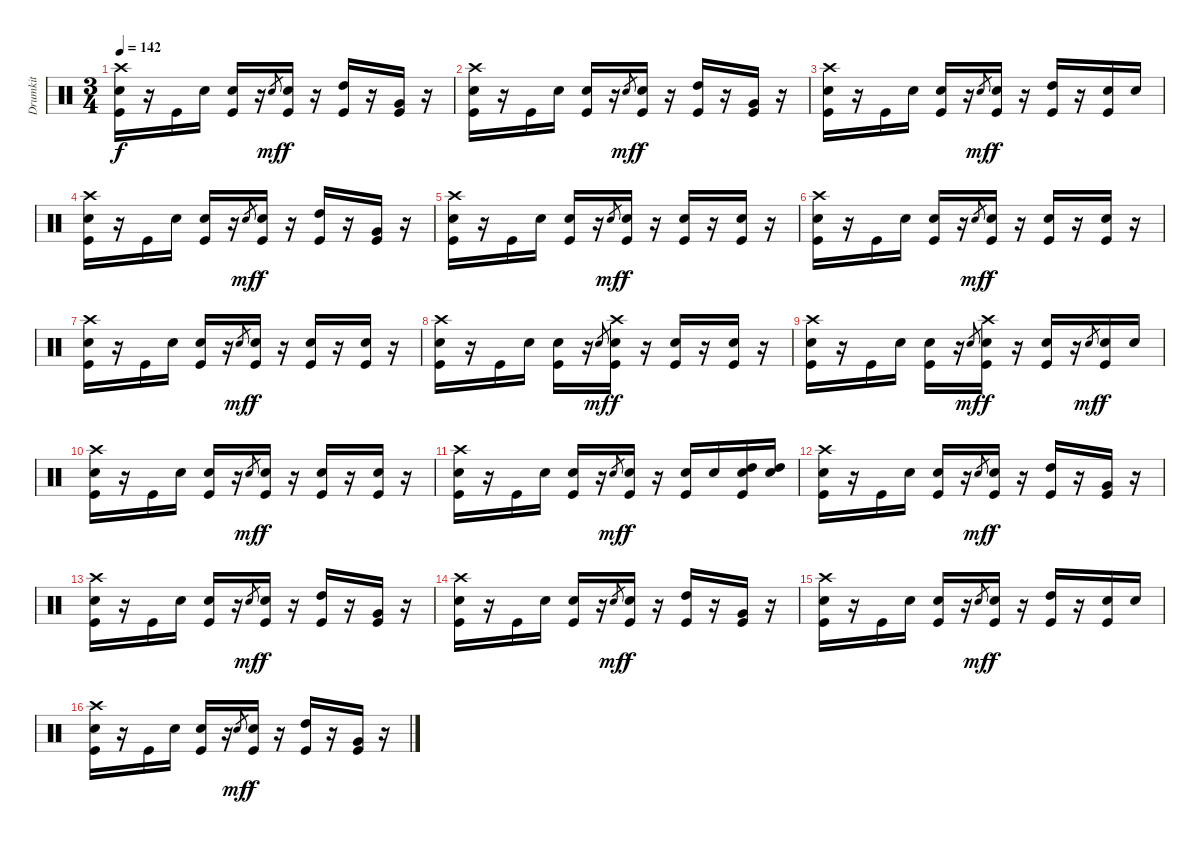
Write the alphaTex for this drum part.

\track ("Drumkit" "Drumkit") {instrument percussion}
\staff {score}
\articulation defaults
\ts (3 4)
\tempo 142
\clef neutral
\ks c
("Crash high (hit)" "Snare (hit) 2" "Kick (hit)").16{dy f} r.16 "Kick (hit)".16 "Snare (hit) 2".16 ("Snare (hit) 2" "Kick (hit)").16 r.16 "Snare (hit)".8{gr dy mf} ("Snare (hit) 2" "Kick (hit)").16{dy f} r.16 ("High Tom (hit)" "Kick (hit)").16 r.16 ("Very Low Tom (hit)" "Kick (hit)").16 r.16 |
("Crash high (hit)" "Snare (hit) 2" "Kick (hit)").16 r.16 "Kick (hit)".16 "Snare (hit) 2".16 ("Snare (hit) 2" "Kick (hit)").16 r.16 "Snare (hit)".8{gr dy mf} ("Snare (hit) 2" "Kick (hit)").16{dy f} r.16 ("High Tom (hit)" "Kick (hit)").16 r.16 ("Very Low Tom (hit)" "Kick (hit)").16 r.16 |
("Crash high (hit)" "Snare (hit) 2" "Kick (hit)").16 r.16 "Kick (hit)".16 "Snare (hit) 2".16 ("Snare (hit) 2" "Kick (hit)").16 r.16 "Snare (hit)".8{gr dy mf} ("Snare (hit) 2" "Kick (hit)").16{dy f} r.16 ("High Tom (hit)" "Kick (hit)").16 r.16 ("Snare (hit) 2" "Kick (hit)").16 "Snare (hit) 2".16 |
("Crash high (hit)" "Snare (hit) 2" "Kick (hit)").16 r.16 "Kick (hit)".16 "Snare (hit) 2".16 ("Snare (hit) 2" "Kick (hit)").16 r.16 "Snare (hit)".8{gr dy mf} ("Snare (hit) 2" "Kick (hit)").16{dy f} r.16 ("High Tom (hit)" "Kick (hit)").16 r.16 ("Very Low Tom (hit)" "Kick (hit)").16 r.16 |
("Crash high (hit)" "Snare (hit) 2" "Kick (hit)").16 r.16 "Kick (hit)".16 "Snare (hit) 2".16 ("Snare (hit) 2" "Kick (hit)").16 r.16 "Snare (hit)".8{gr dy mf} ("Snare (hit) 2" "Kick (hit)").16{dy f} r.16 ("Snare (hit) 2" "Kick (hit)").16 r.16 ("Snare (hit) 2" "Kick (hit)").16 r.16 |
("Crash high (hit)" "Snare (hit) 2" "Kick (hit)").16 r.16 "Kick (hit)".16 "Snare (hit) 2".16 ("Snare (hit) 2" "Kick (hit)").16 r.16 "Snare (hit)".8{gr dy mf} ("Snare (hit) 2" "Kick (hit)").16{dy f} r.16 ("Snare (hit) 2" "Kick (hit)").16 r.16 ("Snare (hit) 2" "Kick (hit)").16 r.16 |
("Crash high (hit)" "Snare (hit) 2" "Kick (hit)").16 r.16 "Kick (hit)".16 "Snare (hit) 2".16 ("Snare (hit) 2" "Kick (hit)").16 r.16 "Snare (hit)".8{gr dy mf} ("Snare (hit) 2" "Kick (hit)").16{dy f} r.16 ("Snare (hit) 2" "Kick (hit)").16 r.16 ("Snare (hit) 2" "Kick (hit)").16 r.16 |
("Crash high (hit)" "Snare (hit) 2" "Kick (hit)").16 r.16 "Kick (hit)".16 "Snare (hit) 2".16 ("Snare (hit) 2" "Kick (hit)").16 r.16 "Snare (hit)".8{gr dy mf} ("Crash high (hit)" "Snare (hit) 2" "Kick (hit)").16{dy f} r.16 ("Snare (hit) 2" "Kick (hit)").16 r.16 ("Snare (hit) 2" "Kick (hit)").16 r.16 |
("Crash high (hit)" "Snare (hit) 2" "Kick (hit)").16 r.16 "Kick (hit)".16 "Snare (hit) 2".16 ("Snare (hit) 2" "Kick (hit)").16 r.16 "Snare (hit)".8{gr dy mf} ("Crash high (hit)" "Snare (hit) 2" "Kick (hit)").16{dy f} r.16 ("Snare (hit) 2" "Kick (hit)").16 r.16 "Snare (hit)".8{gr dy mf} ("Snare (hit) 2" "Kick (hit)").16{dy f} "Snare (hit) 2".16 |
("Crash high (hit)" "Snare (hit) 2" "Kick (hit)").16 r.16 "Kick (hit)".16 "Snare (hit) 2".16 ("Snare (hit) 2" "Kick (hit)").16 r.16 "Snare (hit)".8{gr dy mf} ("Snare (hit) 2" "Kick (hit)").16{dy f} r.16 ("Snare (hit) 2" "Kick (hit)").16 r.16 ("Snare (hit) 2" "Kick (hit)").16 r.16 |
("Crash high (hit)" "Snare (hit) 2" "Kick (hit)").16 r.16 "Kick (hit)".16 "Snare (hit) 2".16 ("Snare (hit) 2" "Kick (hit)").16 r.16 "Snare (hit)".8{gr dy mf} ("Snare (hit) 2" "Kick (hit)").16{dy f} r.16 ("Snare (hit) 2" "Kick (hit)").16 "Snare (hit) 2".16 ("Snare (hit) 2" "High Tom (hit)" "Kick (hit)").16 ("Snare (hit) 2" "High Tom (hit)").16 |
("Crash high (hit)" "Snare (hit) 2" "Kick (hit)").16 r.16 "Kick (hit)".16 "Snare (hit) 2".16 ("Snare (hit) 2" "Kick (hit)").16 r.16 "Snare (hit)".8{gr dy mf} ("Snare (hit) 2" "Kick (hit)").16{dy f} r.16 ("High Tom (hit)" "Kick (hit)").16 r.16 ("Very Low Tom (hit)" "Kick (hit)").16 r.16 |
("Crash high (hit)" "Snare (hit) 2" "Kick (hit)").16 r.16 "Kick (hit)".16 "Snare (hit) 2".16 ("Snare (hit) 2" "Kick (hit)").16 r.16 "Snare (hit)".8{gr dy mf} ("Snare (hit) 2" "Kick (hit)").16{dy f} r.16 ("High Tom (hit)" "Kick (hit)").16 r.16 ("Very Low Tom (hit)" "Kick (hit)").16 r.16 |
("Crash high (hit)" "Snare (hit) 2" "Kick (hit)").16 r.16 "Kick (hit)".16 "Snare (hit) 2".16 ("Snare (hit) 2" "Kick (hit)").16 r.16 "Snare (hit)".8{gr dy mf} ("Snare (hit) 2" "Kick (hit)").16{dy f} r.16 ("High Tom (hit)" "Kick (hit)").16 r.16 ("Very Low Tom (hit)" "Kick (hit)").16 r.16 |
("Crash high (hit)" "Snare (hit) 2" "Kick (hit)").16 r.16 "Kick (hit)".16 "Snare (hit) 2".16 ("Snare (hit) 2" "Kick (hit)").16 r.16 "Snare (hit)".8{gr dy mf} ("Snare (hit) 2" "Kick (hit)").16{dy f} r.16 ("High Tom (hit)" "Kick (hit)").16 r.16 ("Snare (hit) 2" "Kick (hit)").16 "Snare (hit) 2".16 |
("Crash high (hit)" "Snare (hit) 2" "Kick (hit)").16 r.16 "Kick (hit)".16 "Snare (hit) 2".16 ("Snare (hit) 2" "Kick (hit)").16 r.16 "Snare (hit)".8{gr dy mf} ("Snare (hit) 2" "Kick (hit)").16{dy f} r.16 ("High Tom (hit)" "Kick (hit)").16 r.16 ("Very Low Tom (hit)" "Kick (hit)").16 r.16
